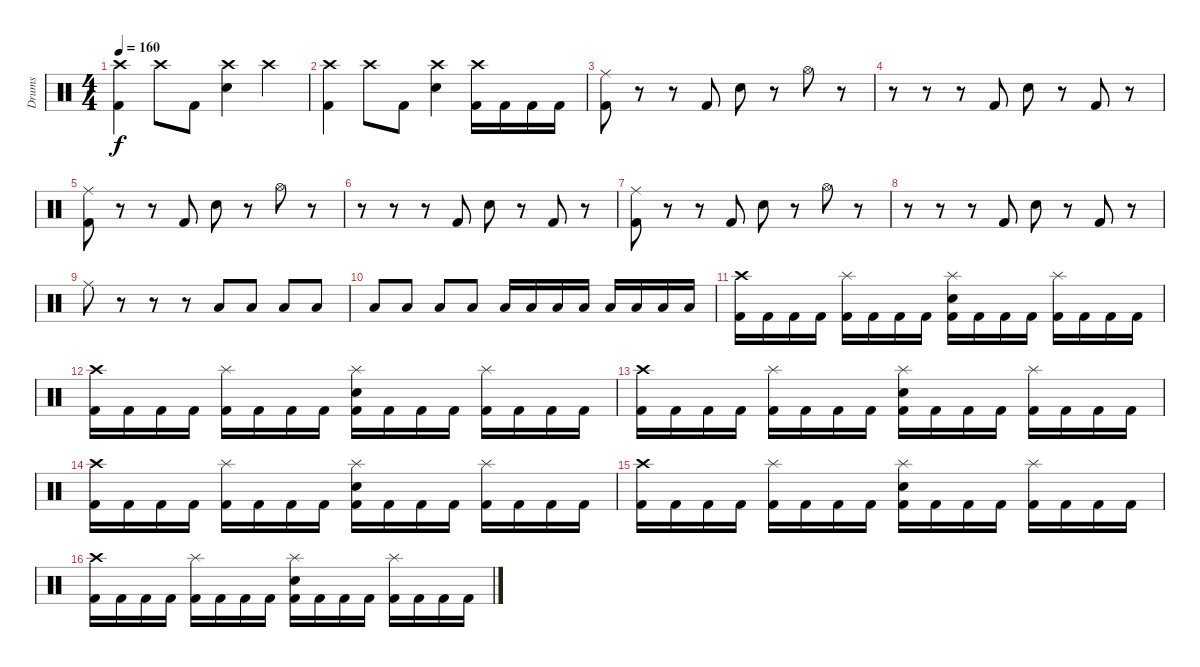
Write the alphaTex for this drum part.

\track ("Drums" "Drums") {instrument percussion}
\staff {score}
\articulation defaults
\ts (4 4)
\tempo 160
\clef neutral
\ks c
("Crash high (hit)" "Kick (hit) 2").4{dy f} "Crash high (hit)".8 "Kick (hit) 2".8 ("Crash high (hit)" "Electric Snare (hit)").4 "Crash high (hit)".4 |
("Crash high (hit)" "Kick (hit) 2").4 "Crash high (hit)".8 "Kick (hit) 2".8 ("Crash high (hit)" "Electric Snare (hit)").4 ("Crash high (hit)" "Kick (hit) 2").16 "Kick (hit) 2".16 "Kick (hit) 2".16 "Kick (hit) 2".16 |
\section ("" " ")
("Ride (middle)" "Kick (hit) 2").8 r.8 r.8 "Kick (hit) 2".8 "Electric Snare (hit)".8 r.8 "Hi-Hat (open)".8 r.8 |
r.8 r.8 r.8 "Kick (hit) 2".8 "Electric Snare (hit)".8 r.8 "Kick (hit) 2".8 r.8 |
("Ride (middle)" "Kick (hit) 2").8 r.8 r.8 "Kick (hit) 2".8 "Electric Snare (hit)".8 r.8 "Hi-Hat (open)".8 r.8 |
r.8 r.8 r.8 "Kick (hit) 2".8 "Electric Snare (hit)".8 r.8 "Kick (hit) 2".8 r.8 |
("Ride (middle)" "Kick (hit) 2").8 r.8 r.8 "Kick (hit) 2".8 "Electric Snare (hit)".8 r.8 "Hi-Hat (open)".8 r.8 |
r.8 r.8 r.8 "Kick (hit) 2".8 "Electric Snare (hit)".8 r.8 "Kick (hit) 2".8 r.8 |
"Ride (middle)".8 r.8 r.8 r.8 "Low Tom (hit)".8 "Low Tom (hit)".8 "Low Tom (hit)".8 "Low Tom (hit)".8 |
"Low Tom (hit)".8 "Low Tom (hit)".8 "Low Tom (hit)".8 "Low Tom (hit)".8 "Low Tom (hit)".16 "Low Tom (hit)".16 "Low Tom (hit)".16 "Low Tom (hit)".16 "Low Tom (hit)".16 "Low Tom (hit)".16 "Low Tom (hit)".16 "Low Tom (hit)".16 |
("Crash high (hit)" "Kick (hit) 2").16 "Kick (hit) 2".16 "Kick (hit) 2".16 "Kick (hit) 2".16 ("Splash (hit)" "Kick (hit) 2").16 "Kick (hit) 2".16 "Kick (hit) 2".16 "Kick (hit) 2".16 ("Splash (hit)" "Electric Snare (hit)" "Kick (hit) 2").16 "Kick (hit) 2".16 "Kick (hit) 2".16 "Kick (hit) 2".16 ("Splash (hit)" "Kick (hit) 2").16 "Kick (hit) 2".16 "Kick (hit) 2".16 "Kick (hit) 2".16 |
("Crash high (hit)" "Kick (hit) 2").16 "Kick (hit) 2".16 "Kick (hit) 2".16 "Kick (hit) 2".16 ("Splash (hit)" "Kick (hit) 2").16 "Kick (hit) 2".16 "Kick (hit) 2".16 "Kick (hit) 2".16 ("Splash (hit)" "Electric Snare (hit)" "Kick (hit) 2").16 "Kick (hit) 2".16 "Kick (hit) 2".16 "Kick (hit) 2".16 ("Splash (hit)" "Kick (hit) 2").16 "Kick (hit) 2".16 "Kick (hit) 2".16 "Kick (hit) 2".16 |
("Crash high (hit)" "Kick (hit) 2").16 "Kick (hit) 2".16 "Kick (hit) 2".16 "Kick (hit) 2".16 ("Splash (hit)" "Kick (hit) 2").16 "Kick (hit) 2".16 "Kick (hit) 2".16 "Kick (hit) 2".16 ("Splash (hit)" "Electric Snare (hit)" "Kick (hit) 2").16 "Kick (hit) 2".16 "Kick (hit) 2".16 "Kick (hit) 2".16 ("Splash (hit)" "Kick (hit) 2").16 "Kick (hit) 2".16 "Kick (hit) 2".16 "Kick (hit) 2".16 |
("Crash high (hit)" "Kick (hit) 2").16 "Kick (hit) 2".16 "Kick (hit) 2".16 "Kick (hit) 2".16 ("Splash (hit)" "Kick (hit) 2").16 "Kick (hit) 2".16 "Kick (hit) 2".16 "Kick (hit) 2".16 ("Splash (hit)" "Electric Snare (hit)" "Kick (hit) 2").16 "Kick (hit) 2".16 "Kick (hit) 2".16 "Kick (hit) 2".16 ("Splash (hit)" "Kick (hit) 2").16 "Kick (hit) 2".16 "Kick (hit) 2".16 "Kick (hit) 2".16 |
("Crash high (hit)" "Kick (hit) 2").16 "Kick (hit) 2".16 "Kick (hit) 2".16 "Kick (hit) 2".16 ("Splash (hit)" "Kick (hit) 2").16 "Kick (hit) 2".16 "Kick (hit) 2".16 "Kick (hit) 2".16 ("Splash (hit)" "Electric Snare (hit)" "Kick (hit) 2").16 "Kick (hit) 2".16 "Kick (hit) 2".16 "Kick (hit) 2".16 ("Splash (hit)" "Kick (hit) 2").16 "Kick (hit) 2".16 "Kick (hit) 2".16 "Kick (hit) 2".16 |
("Crash high (hit)" "Kick (hit) 2").16 "Kick (hit) 2".16 "Kick (hit) 2".16 "Kick (hit) 2".16 ("Splash (hit)" "Kick (hit) 2").16 "Kick (hit) 2".16 "Kick (hit) 2".16 "Kick (hit) 2".16 ("Splash (hit)" "Electric Snare (hit)" "Kick (hit) 2").16 "Kick (hit) 2".16 "Kick (hit) 2".16 "Kick (hit) 2".16 ("Splash (hit)" "Kick (hit) 2").16 "Kick (hit) 2".16 "Kick (hit) 2".16 "Kick (hit) 2".16
